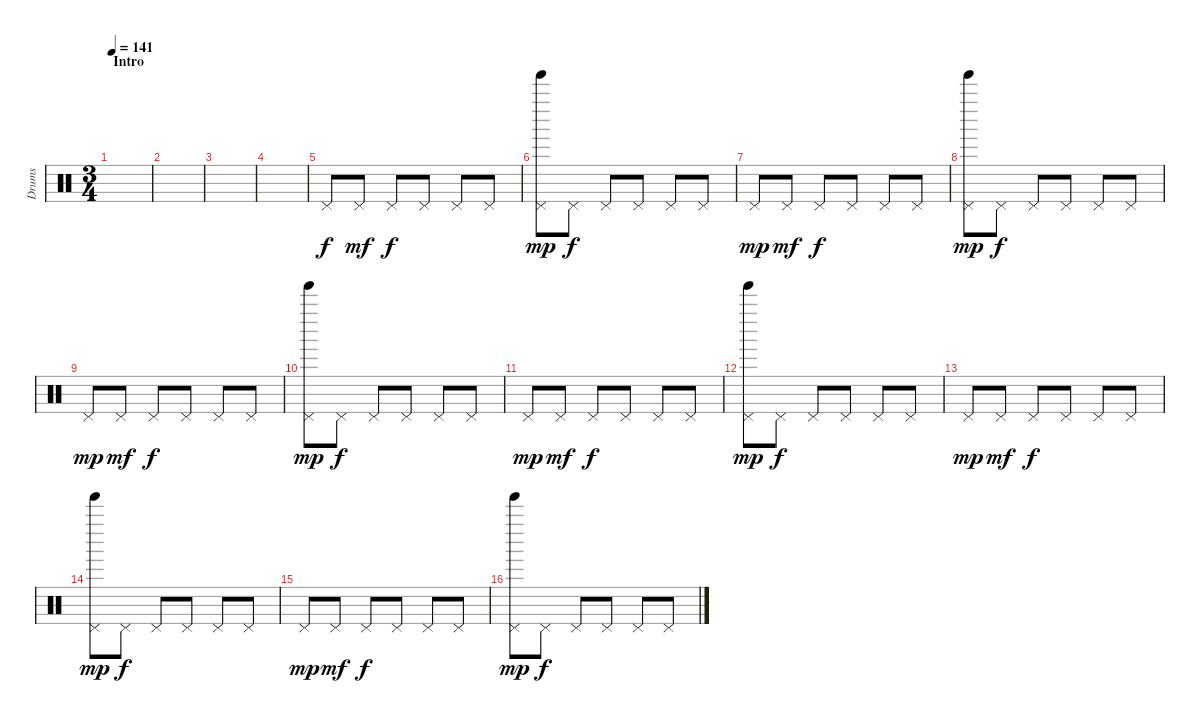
\track ("Drums" "Drums") {instrument percussion}
\staff {score}
\articulation defaults
\ts (3 4)
\section ("" "Intro")
\tempo 141
\clef neutral
\ks c
|
|
|
|
"Pedal Hi-Hat (hit)".8 "Pedal Hi-Hat (hit)".8{dy mf} "Pedal Hi-Hat (hit)".8{dy f} "Pedal Hi-Hat (hit)".8 "Pedal Hi-Hat (hit)".8 "Pedal Hi-Hat (hit)".8 |
("Pedal Hi-Hat (hit)" "Tinkle Bell (hit)").8{dy mp} "Pedal Hi-Hat (hit)".8{dy f} "Pedal Hi-Hat (hit)".8 "Pedal Hi-Hat (hit)".8 "Pedal Hi-Hat (hit)".8 "Pedal Hi-Hat (hit)".8 |
"Pedal Hi-Hat (hit)".8{dy mp} "Pedal Hi-Hat (hit)".8{dy mf} "Pedal Hi-Hat (hit)".8{dy f} "Pedal Hi-Hat (hit)".8 "Pedal Hi-Hat (hit)".8 "Pedal Hi-Hat (hit)".8 |
("Pedal Hi-Hat (hit)" "Tinkle Bell (hit)").8{dy mp} "Pedal Hi-Hat (hit)".8{dy f} "Pedal Hi-Hat (hit)".8 "Pedal Hi-Hat (hit)".8 "Pedal Hi-Hat (hit)".8 "Pedal Hi-Hat (hit)".8 |
"Pedal Hi-Hat (hit)".8{dy mp} "Pedal Hi-Hat (hit)".8{dy mf} "Pedal Hi-Hat (hit)".8{dy f} "Pedal Hi-Hat (hit)".8 "Pedal Hi-Hat (hit)".8 "Pedal Hi-Hat (hit)".8 |
("Pedal Hi-Hat (hit)" "Tinkle Bell (hit)").8{dy mp} "Pedal Hi-Hat (hit)".8{dy f} "Pedal Hi-Hat (hit)".8 "Pedal Hi-Hat (hit)".8 "Pedal Hi-Hat (hit)".8 "Pedal Hi-Hat (hit)".8 |
"Pedal Hi-Hat (hit)".8{dy mp} "Pedal Hi-Hat (hit)".8{dy mf} "Pedal Hi-Hat (hit)".8{dy f} "Pedal Hi-Hat (hit)".8 "Pedal Hi-Hat (hit)".8 "Pedal Hi-Hat (hit)".8 |
("Pedal Hi-Hat (hit)" "Tinkle Bell (hit)").8{dy mp} "Pedal Hi-Hat (hit)".8{dy f} "Pedal Hi-Hat (hit)".8 "Pedal Hi-Hat (hit)".8 "Pedal Hi-Hat (hit)".8 "Pedal Hi-Hat (hit)".8 |
"Pedal Hi-Hat (hit)".8{dy mp} "Pedal Hi-Hat (hit)".8{dy mf} "Pedal Hi-Hat (hit)".8{dy f} "Pedal Hi-Hat (hit)".8 "Pedal Hi-Hat (hit)".8 "Pedal Hi-Hat (hit)".8 |
("Pedal Hi-Hat (hit)" "Tinkle Bell (hit)").8{dy mp} "Pedal Hi-Hat (hit)".8{dy f} "Pedal Hi-Hat (hit)".8 "Pedal Hi-Hat (hit)".8 "Pedal Hi-Hat (hit)".8 "Pedal Hi-Hat (hit)".8 |
"Pedal Hi-Hat (hit)".8{dy mp} "Pedal Hi-Hat (hit)".8{dy mf} "Pedal Hi-Hat (hit)".8{dy f} "Pedal Hi-Hat (hit)".8 "Pedal Hi-Hat (hit)".8 "Pedal Hi-Hat (hit)".8 |
("Pedal Hi-Hat (hit)" "Tinkle Bell (hit)").8{dy mp} "Pedal Hi-Hat (hit)".8{dy f} "Pedal Hi-Hat (hit)".8 "Pedal Hi-Hat (hit)".8 "Pedal Hi-Hat (hit)".8 "Pedal Hi-Hat (hit)".8
